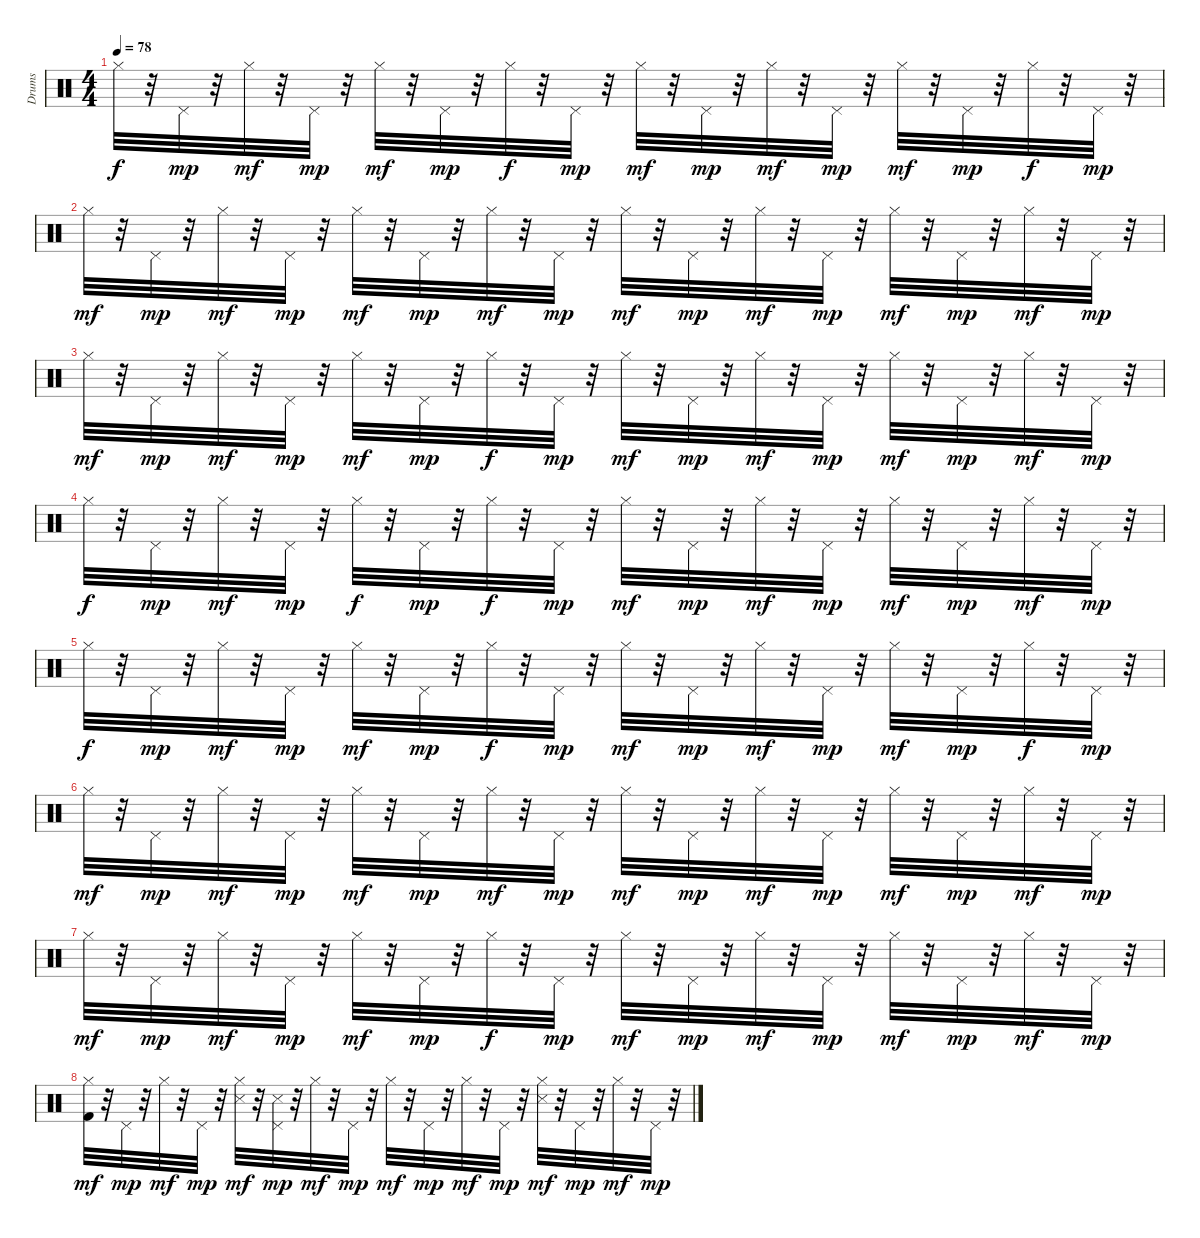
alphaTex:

\track ("Drums   " "Drums   ") {instrument percussion}
\staff {score}
\articulation defaults
\ts (4 4)
\tempo 78
\clef neutral
\ks c "Hi-Hat (closed)".32{dy f}
r.32 "Pedal Hi-Hat (hit)".32{dy mp} r.32 "Hi-Hat (closed)".32{dy mf} r.32 "Pedal Hi-Hat (hit)".32{dy mp} r.32 "Hi-Hat (closed)".32{dy mf} r.32 "Pedal Hi-Hat (hit)".32{dy mp} r.32 "Hi-Hat (closed)".32{dy f} r.32 "Pedal Hi-Hat (hit)".32{dy mp} r.32 "Hi-Hat (closed)".32{dy mf} r.32 "Pedal Hi-Hat (hit)".32{dy mp} r.32 "Hi-Hat (closed)".32{dy mf} r.32 "Pedal Hi-Hat (hit)".32{dy mp} r.32 "Hi-Hat (closed)".32{dy mf} r.32 "Pedal Hi-Hat (hit)".32{dy mp} r.32 "Hi-Hat (closed)".32{dy f} r.32 "Pedal Hi-Hat (hit)".32{dy mp} r.32 |
"Hi-Hat (closed)".32{dy mf} r.32 "Pedal Hi-Hat (hit)".32{dy mp} r.32 "Hi-Hat (closed)".32{dy mf} r.32 "Pedal Hi-Hat (hit)".32{dy mp} r.32 "Hi-Hat (closed)".32{dy mf} r.32 "Pedal Hi-Hat (hit)".32{dy mp} r.32 "Hi-Hat (closed)".32{dy mf} r.32 "Pedal Hi-Hat (hit)".32{dy mp} r.32 "Hi-Hat (closed)".32{dy mf} r.32 "Pedal Hi-Hat (hit)".32{dy mp} r.32 "Hi-Hat (closed)".32{dy mf} r.32 "Pedal Hi-Hat (hit)".32{dy mp} r.32 "Hi-Hat (closed)".32{dy mf} r.32 "Pedal Hi-Hat (hit)".32{dy mp} r.32 "Hi-Hat (closed)".32{dy mf} r.32 "Pedal Hi-Hat (hit)".32{dy mp} r.32 |
"Hi-Hat (closed)".32{dy mf} r.32 "Pedal Hi-Hat (hit)".32{dy mp} r.32 "Hi-Hat (closed)".32{dy mf} r.32 "Pedal Hi-Hat (hit)".32{dy mp} r.32 "Hi-Hat (closed)".32{dy mf} r.32 "Pedal Hi-Hat (hit)".32{dy mp} r.32 "Hi-Hat (closed)".32{dy f} r.32 "Pedal Hi-Hat (hit)".32{dy mp} r.32 "Hi-Hat (closed)".32{dy mf} r.32 "Pedal Hi-Hat (hit)".32{dy mp} r.32 "Hi-Hat (closed)".32{dy mf} r.32 "Pedal Hi-Hat (hit)".32{dy mp} r.32 "Hi-Hat (closed)".32{dy mf} r.32 "Pedal Hi-Hat (hit)".32{dy mp} r.32 "Hi-Hat (closed)".32{dy mf} r.32 "Pedal Hi-Hat (hit)".32{dy mp} r.32 |
"Hi-Hat (closed)".32{dy f} r.32 "Pedal Hi-Hat (hit)".32{dy mp} r.32 "Hi-Hat (closed)".32{dy mf} r.32 "Pedal Hi-Hat (hit)".32{dy mp} r.32 "Hi-Hat (closed)".32{dy f} r.32 "Pedal Hi-Hat (hit)".32{dy mp} r.32 "Hi-Hat (closed)".32{dy f} r.32 "Pedal Hi-Hat (hit)".32{dy mp} r.32 "Hi-Hat (closed)".32{dy mf} r.32 "Pedal Hi-Hat (hit)".32{dy mp} r.32 "Hi-Hat (closed)".32{dy mf} r.32 "Pedal Hi-Hat (hit)".32{dy mp} r.32 "Hi-Hat (closed)".32{dy mf} r.32 "Pedal Hi-Hat (hit)".32{dy mp} r.32 "Hi-Hat (closed)".32{dy mf} r.32 "Pedal Hi-Hat (hit)".32{dy mp} r.32 |
"Hi-Hat (closed)".32{dy f} r.32 "Pedal Hi-Hat (hit)".32{dy mp} r.32 "Hi-Hat (closed)".32{dy mf} r.32 "Pedal Hi-Hat (hit)".32{dy mp} r.32 "Hi-Hat (closed)".32{dy mf} r.32 "Pedal Hi-Hat (hit)".32{dy mp} r.32 "Hi-Hat (closed)".32{dy f} r.32 "Pedal Hi-Hat (hit)".32{dy mp} r.32 "Hi-Hat (closed)".32{dy mf} r.32 "Pedal Hi-Hat (hit)".32{dy mp} r.32 "Hi-Hat (closed)".32{dy mf} r.32 "Pedal Hi-Hat (hit)".32{dy mp} r.32 "Hi-Hat (closed)".32{dy mf} r.32 "Pedal Hi-Hat (hit)".32{dy mp} r.32 "Hi-Hat (closed)".32{dy f} r.32 "Pedal Hi-Hat (hit)".32{dy mp} r.32 |
"Hi-Hat (closed)".32{dy mf} r.32 "Pedal Hi-Hat (hit)".32{dy mp} r.32 "Hi-Hat (closed)".32{dy mf} r.32 "Pedal Hi-Hat (hit)".32{dy mp} r.32 "Hi-Hat (closed)".32{dy mf} r.32 "Pedal Hi-Hat (hit)".32{dy mp} r.32 "Hi-Hat (closed)".32{dy mf} r.32 "Pedal Hi-Hat (hit)".32{dy mp} r.32 "Hi-Hat (closed)".32{dy mf} r.32 "Pedal Hi-Hat (hit)".32{dy mp} r.32 "Hi-Hat (closed)".32{dy mf} r.32 "Pedal Hi-Hat (hit)".32{dy mp} r.32 "Hi-Hat (closed)".32{dy mf} r.32 "Pedal Hi-Hat (hit)".32{dy mp} r.32 "Hi-Hat (closed)".32{dy mf} r.32 "Pedal Hi-Hat (hit)".32{dy mp} r.32 |
"Hi-Hat (closed)".32{dy mf} r.32 "Pedal Hi-Hat (hit)".32{dy mp} r.32 "Hi-Hat (closed)".32{dy mf} r.32 "Pedal Hi-Hat (hit)".32{dy mp} r.32 "Hi-Hat (closed)".32{dy mf} r.32 "Pedal Hi-Hat (hit)".32{dy mp} r.32 "Hi-Hat (closed)".32{dy f} r.32 "Pedal Hi-Hat (hit)".32{dy mp} r.32 "Hi-Hat (closed)".32{dy mf} r.32 "Pedal Hi-Hat (hit)".32{dy mp} r.32 "Hi-Hat (closed)".32{dy mf} r.32 "Pedal Hi-Hat (hit)".32{dy mp} r.32 "Hi-Hat (closed)".32{dy mf} r.32 "Pedal Hi-Hat (hit)".32{dy mp} r.32 "Hi-Hat (closed)".32{dy mf} r.32 "Pedal Hi-Hat (hit)".32{dy mp} r.32 |
("Kick (hit) 2" "Hi-Hat (closed)").32{dy mf} r.32 "Pedal Hi-Hat (hit)".32{dy mp} r.32 "Hi-Hat (closed)".32{dy mf} r.32 "Pedal Hi-Hat (hit)".32{dy mp} r.32 ("Snare (side stick) 3" "Hi-Hat (closed)").32{dy mf} r.32 ("Snare (side stick) 3" "Pedal Hi-Hat (hit)").32{dy mp} r.32 "Hi-Hat (closed)".32{dy mf} r.32 "Pedal Hi-Hat (hit)".32{dy mp} r.32 "Hi-Hat (closed)".32{dy mf} r.32 "Pedal Hi-Hat (hit)".32{dy mp} r.32 "Hi-Hat (closed)".32{dy mf} r.32 "Pedal Hi-Hat (hit)".32{dy mp} r.32 ("Snare (side stick) 3" "Hi-Hat (closed)").32{dy mf} r.32 "Pedal Hi-Hat (hit)".32{dy mp} r.32 "Hi-Hat (closed)".32{dy mf} r.32 "Pedal Hi-Hat (hit)".32{dy mp} r.32
